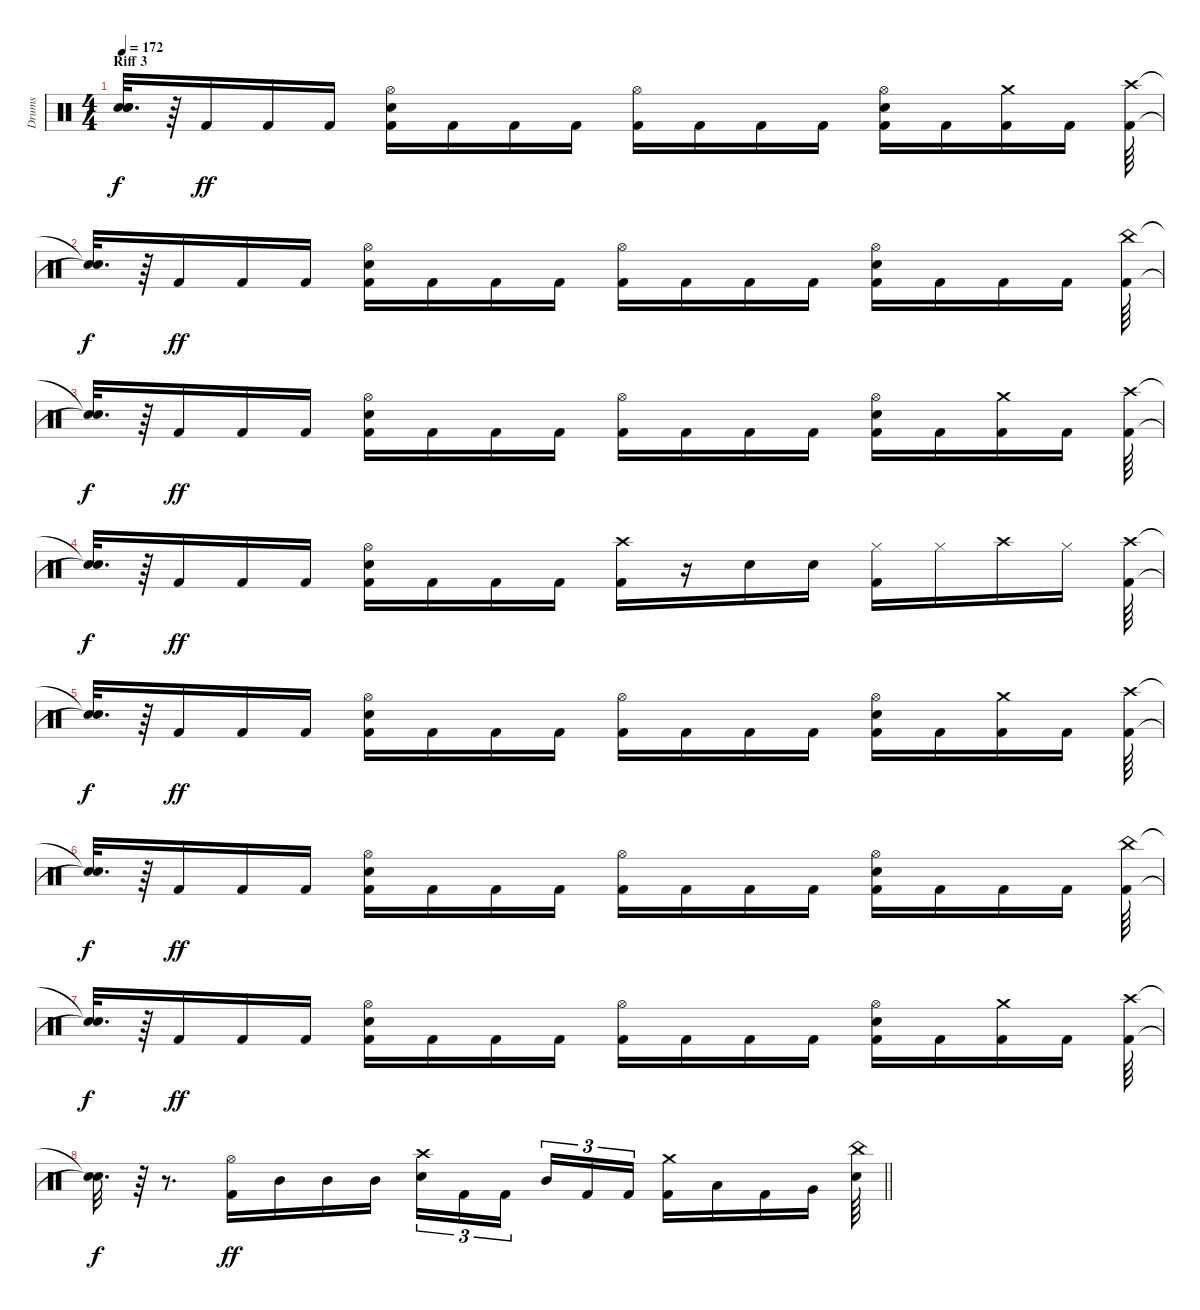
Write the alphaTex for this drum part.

\track ("Drums" "Drums") {instrument percussion}
\staff {score}
\articulation defaults
\ts (4 4)
\section ("" "Riff 3")
\tempo 172
\clef neutral
\ks c
("Snare (hit)"{t} "Snare (hit)"{t} "Snare (hit)"{t}).32{d dy f} r.64 "Kick (hit) 2".16{dy ff} "Kick (hit) 2".16 "Kick (hit) 2".16 ("Hi-Hat (open)" "Kick (hit) 2" "Snare (hit) 2").16 "Kick (hit) 2".16 "Kick (hit) 2".16 "Kick (hit) 2".16 ("Hi-Hat (open)" "Kick (hit) 2").16 "Kick (hit) 2".16 "Kick (hit) 2".16 "Kick (hit) 2".16 ("Hi-Hat (open)" "Kick (hit) 2" "Snare (hit) 2").16 "Kick (hit) 2".16 ("Crash medium (hit)" "Kick (hit) 2").16 "Kick (hit) 2".16 ("Crash high (hit)" "Kick (hit) 2").64 |
("Snare (hit)"{t} "Snare (hit)"{t}).32{d dy f} r.64 "Kick (hit) 2".16{dy ff} "Kick (hit) 2".16 "Kick (hit) 2".16 ("Hi-Hat (open)" "Kick (hit) 2" "Snare (hit) 2").16 "Kick (hit) 2".16 "Kick (hit) 2".16 "Kick (hit) 2".16 ("Hi-Hat (open)" "Kick (hit) 2").16 "Kick (hit) 2".16 "Kick (hit) 2".16 "Kick (hit) 2".16 ("Hi-Hat (open)" "Kick (hit) 2" "Snare (hit) 2").16 "Kick (hit) 2".16 "Kick (hit) 2".16 "Kick (hit) 2".16 ("China (hit)" "Kick (hit) 2").64 |
("Snare (hit)"{t} "Snare (hit)"{t}).32{d dy f} r.64 "Kick (hit) 2".16{dy ff} "Kick (hit) 2".16 "Kick (hit) 2".16 ("Hi-Hat (open)" "Kick (hit) 2" "Snare (hit) 2").16 "Kick (hit) 2".16 "Kick (hit) 2".16 "Kick (hit) 2".16 ("Hi-Hat (open)" "Kick (hit) 2").16 "Kick (hit) 2".16 "Kick (hit) 2".16 "Kick (hit) 2".16 ("Hi-Hat (open)" "Kick (hit) 2" "Snare (hit) 2").16 "Kick (hit) 2".16 ("Crash medium (hit)" "Kick (hit) 2").16 "Kick (hit) 2".16 ("Crash high (hit)" "Kick (hit) 2").64 |
("Snare (hit)"{t} "Snare (hit)"{t}).32{d dy f} r.64 "Kick (hit) 2".16{dy ff} "Kick (hit) 2".16 "Kick (hit) 2".16 ("Hi-Hat (open)" "Kick (hit) 2" "Snare (hit) 2").16 "Kick (hit) 2".16 "Kick (hit) 2".16 "Kick (hit) 2".16 ("Crash high (hit)" "Kick (hit) 2").16 r.16 "Snare (hit) 2".16 "Snare (hit) 2".16 ("Hi-Hat (closed)" "Kick (hit) 2").16 "Hi-Hat (closed)".16 "Crash high (hit)".16 "Hi-Hat (closed)".16 ("Crash high (hit)" "Kick (hit) 2").64 |
("Snare (hit)"{t} "Snare (hit)"{t}).32{d dy f} r.64 "Kick (hit) 2".16{dy ff} "Kick (hit) 2".16 "Kick (hit) 2".16 ("Hi-Hat (open)" "Kick (hit) 2" "Snare (hit) 2").16 "Kick (hit) 2".16 "Kick (hit) 2".16 "Kick (hit) 2".16 ("Hi-Hat (open)" "Kick (hit) 2").16 "Kick (hit) 2".16 "Kick (hit) 2".16 "Kick (hit) 2".16 ("Hi-Hat (open)" "Kick (hit) 2" "Snare (hit) 2").16 "Kick (hit) 2".16 ("Crash medium (hit)" "Kick (hit) 2").16 "Kick (hit) 2".16 ("Crash high (hit)" "Kick (hit) 2").64 |
("Snare (hit)"{t} "Snare (hit)"{t}).32{d dy f} r.64 "Kick (hit) 2".16{dy ff} "Kick (hit) 2".16 "Kick (hit) 2".16 ("Hi-Hat (open)" "Kick (hit) 2" "Snare (hit) 2").16 "Kick (hit) 2".16 "Kick (hit) 2".16 "Kick (hit) 2".16 ("Hi-Hat (open)" "Kick (hit) 2").16 "Kick (hit) 2".16 "Kick (hit) 2".16 "Kick (hit) 2".16 ("Hi-Hat (open)" "Kick (hit) 2" "Snare (hit) 2").16 "Kick (hit) 2".16 "Kick (hit) 2".16 "Kick (hit) 2".16 ("China (hit)" "Kick (hit) 2").64 |
("Snare (hit)"{t} "Snare (hit)"{t}).32{d dy f} r.64 "Kick (hit) 2".16{dy ff} "Kick (hit) 2".16 "Kick (hit) 2".16 ("Hi-Hat (open)" "Kick (hit) 2" "Snare (hit) 2").16 "Kick (hit) 2".16 "Kick (hit) 2".16 "Kick (hit) 2".16 ("Hi-Hat (open)" "Kick (hit) 2").16 "Kick (hit) 2".16 "Kick (hit) 2".16 "Kick (hit) 2".16 ("Hi-Hat (open)" "Kick (hit) 2" "Snare (hit) 2").16 "Kick (hit) 2".16 ("Crash medium (hit)" "Kick (hit) 2").16 "Kick (hit) 2".16 ("Crash high (hit)" "Kick (hit) 2").64 |
\barLineRight lightlight
("Snare (hit)"{t} "Snare (hit)"{t}).32{d dy f} r.64 r.8{d} ("Hi-Hat (open)" "Kick (hit) 2").16{dy ff} "Mid Tom (hit)".16 "Mid Tom (hit)".16 "Mid Tom (hit)".16 ("Crash high (hit)" "Snare (hit) 2").16{tu (3 2)} "Kick (hit) 2".16{tu (3 2)} "Kick (hit) 2".16{tu (3 2) beam splitsecondary} "Mid Tom (hit)".16{tu (3 2)} "Kick (hit) 2".16{tu (3 2)} "Kick (hit) 2".16{tu (3 2)} ("Crash medium (hit)" "Kick (hit) 2").16 "Low Tom (hit)".16 "Kick (hit) 2".16 "Very Low Tom (hit)".16 ("China (hit)" "Snare (hit) 2").64
